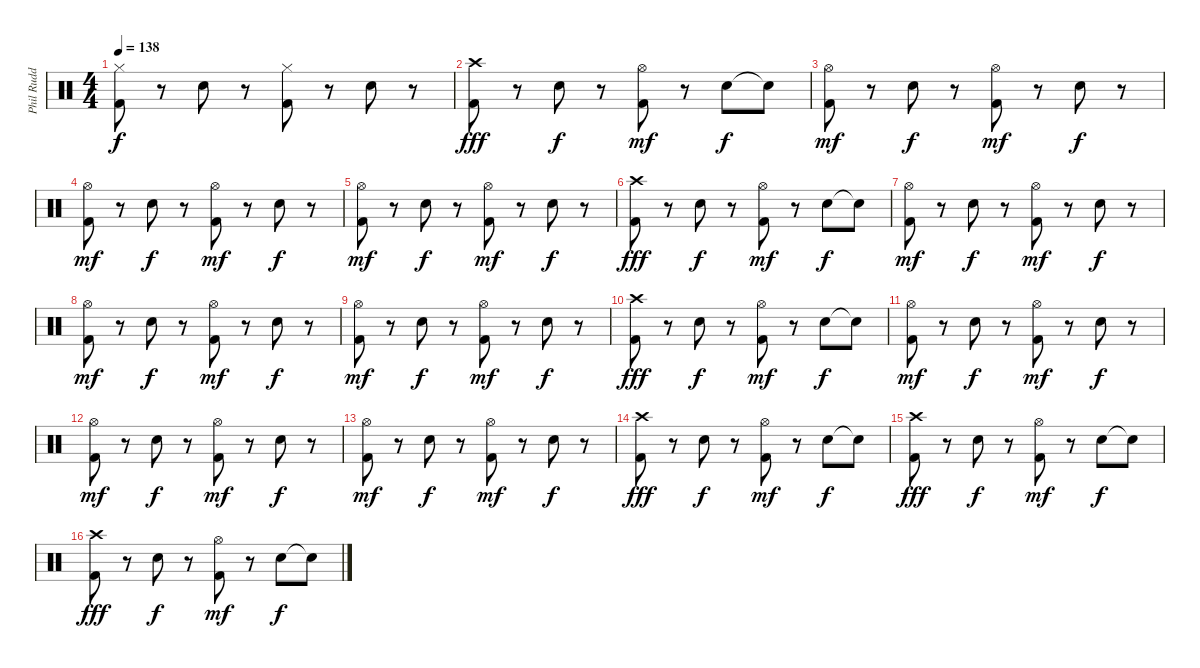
\track ("Phil Rudd" "Phil Rudd") {instrument percussion}
\staff {score}
\articulation defaults
\ts (4 4)
\tempo 138
\clef neutral
\ks c
("Hi-Hat (closed)" "Kick (hit) 2").8{dy f} r.8 "Snare (hit) 2".8 r.8 ("Hi-Hat (closed)" "Kick (hit) 2").8 r.8 "Snare (hit) 2".8 r.8 |
("Crash high (hit)" "Kick (hit) 2").8{dy fff} r.8 "Snare (hit) 2".8{dy f} r.8 ("Hi-Hat (open)" "Kick (hit) 2").8{dy mf} r.8 "Snare (hit) 2".8{dy f} "Snare (hit)"{t}.8 |
("Hi-Hat (open)" "Kick (hit) 2").8{dy mf} r.8 "Snare (hit) 2".8{dy f} r.8 ("Hi-Hat (open)" "Kick (hit) 2").8{dy mf} r.8 "Snare (hit) 2".8{dy f} r.8 |
("Hi-Hat (open)" "Kick (hit) 2").8{dy mf} r.8 "Snare (hit) 2".8{dy f} r.8 ("Hi-Hat (open)" "Kick (hit) 2").8{dy mf} r.8 "Snare (hit) 2".8{dy f} r.8 |
("Hi-Hat (open)" "Kick (hit) 2").8{dy mf} r.8 "Snare (hit) 2".8{dy f} r.8 ("Hi-Hat (open)" "Kick (hit) 2").8{dy mf} r.8 "Snare (hit) 2".8{dy f} r.8 |
("Crash high (hit)" "Kick (hit) 2").8{dy fff} r.8 "Snare (hit) 2".8{dy f} r.8 ("Hi-Hat (open)" "Kick (hit) 2").8{dy mf} r.8 "Snare (hit) 2".8{dy f} "Snare (hit)"{t}.8 |
("Hi-Hat (open)" "Kick (hit) 2").8{dy mf} r.8 "Snare (hit) 2".8{dy f} r.8 ("Hi-Hat (open)" "Kick (hit) 2").8{dy mf} r.8 "Snare (hit) 2".8{dy f} r.8 |
("Hi-Hat (open)" "Kick (hit) 2").8{dy mf} r.8 "Snare (hit) 2".8{dy f} r.8 ("Hi-Hat (open)" "Kick (hit) 2").8{dy mf} r.8 "Snare (hit) 2".8{dy f} r.8 |
("Hi-Hat (open)" "Kick (hit) 2").8{dy mf} r.8 "Snare (hit) 2".8{dy f} r.8 ("Hi-Hat (open)" "Kick (hit) 2").8{dy mf} r.8 "Snare (hit) 2".8{dy f} r.8 |
("Crash high (hit)" "Kick (hit) 2").8{dy fff} r.8 "Snare (hit) 2".8{dy f} r.8 ("Hi-Hat (open)" "Kick (hit) 2").8{dy mf} r.8 "Snare (hit) 2".8{dy f} "Snare (hit)"{t}.8 |
("Hi-Hat (open)" "Kick (hit) 2").8{dy mf} r.8 "Snare (hit) 2".8{dy f} r.8 ("Hi-Hat (open)" "Kick (hit) 2").8{dy mf} r.8 "Snare (hit) 2".8{dy f} r.8 |
("Hi-Hat (open)" "Kick (hit) 2").8{dy mf} r.8 "Snare (hit) 2".8{dy f} r.8 ("Hi-Hat (open)" "Kick (hit) 2").8{dy mf} r.8 "Snare (hit) 2".8{dy f} r.8 |
("Hi-Hat (open)" "Kick (hit) 2").8{dy mf} r.8 "Snare (hit) 2".8{dy f} r.8 ("Hi-Hat (open)" "Kick (hit) 2").8{dy mf} r.8 "Snare (hit) 2".8{dy f} r.8 |
("Crash high (hit)" "Kick (hit) 2").8{dy fff} r.8 "Snare (hit) 2".8{dy f} r.8 ("Hi-Hat (open)" "Kick (hit) 2").8{dy mf} r.8 "Snare (hit) 2".8{dy f} "Snare (hit)"{t}.8 |
("Crash high (hit)" "Kick (hit) 2").8{dy fff} r.8 "Snare (hit) 2".8{dy f} r.8 ("Hi-Hat (open)" "Kick (hit) 2").8{dy mf} r.8 "Snare (hit) 2".8{dy f} "Snare (hit)"{t}.8 |
("Crash high (hit)" "Kick (hit) 2").8{dy fff} r.8 "Snare (hit) 2".8{dy f} r.8 ("Hi-Hat (open)" "Kick (hit) 2").8{dy mf} r.8 "Snare (hit) 2".8{dy f} "Snare (hit)"{t}.8
